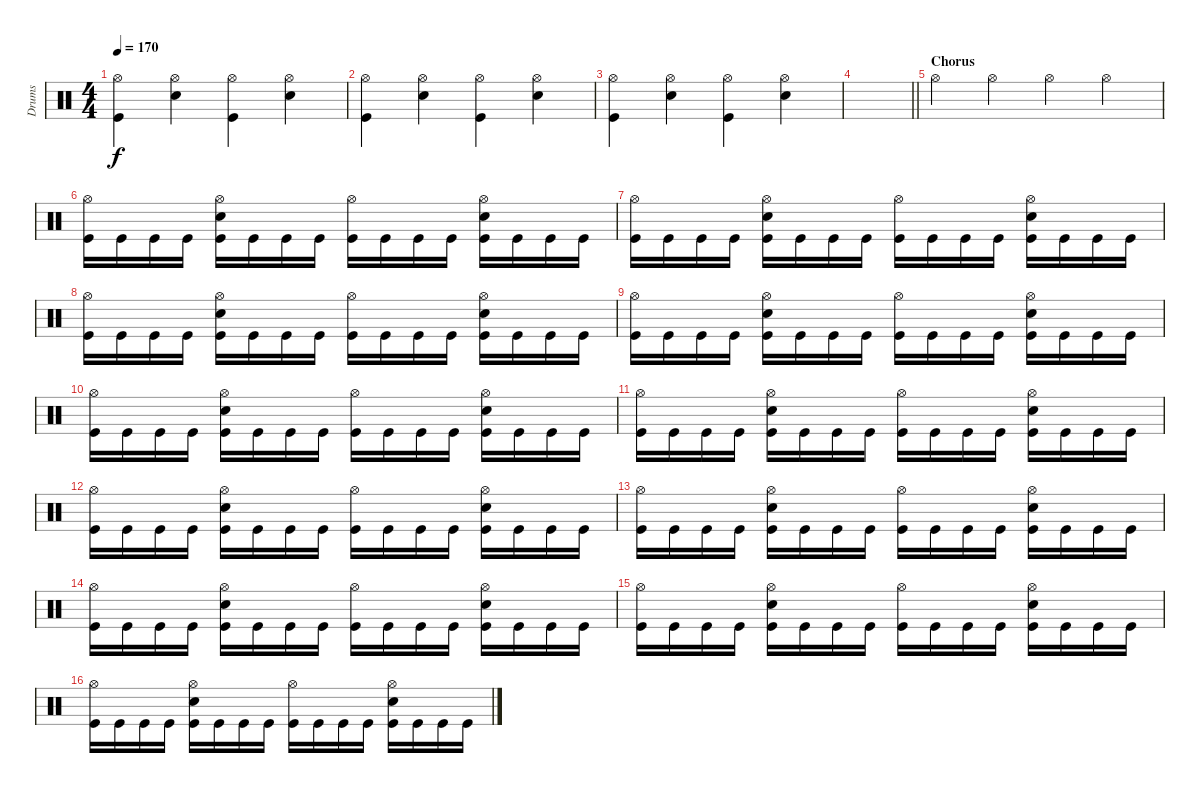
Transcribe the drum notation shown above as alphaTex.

\track ("Drums" "Drums") {instrument percussion}
\staff {score}
\articulation defaults
\ts (4 4)
\tempo 170
\clef neutral
\ks c
("Hi-Hat (open)" "Kick (hit)").4{dy f} ("Hi-Hat (open)" "Snare (hit) 2").4 ("Hi-Hat (open)" "Kick (hit)").4 ("Hi-Hat (open)" "Snare (hit) 2").4 |
("Hi-Hat (open)" "Kick (hit)").4 ("Hi-Hat (open)" "Snare (hit) 2").4 ("Hi-Hat (open)" "Kick (hit)").4 ("Hi-Hat (open)" "Snare (hit) 2").4 |
("Hi-Hat (open)" "Kick (hit)").4 ("Hi-Hat (open)" "Snare (hit) 2").4 ("Hi-Hat (open)" "Kick (hit)").4 ("Hi-Hat (open)" "Snare (hit) 2").4 |
\barLineRight lightlight
|
\section ("" "Chorus")
"Hi-Hat (open)".4 "Hi-Hat (open)".4 "Hi-Hat (open)".4 "Hi-Hat (open)".4 |
("Hi-Hat (open)" "Kick (hit)").16 "Kick (hit)".16 "Kick (hit)".16 "Kick (hit)".16 ("Hi-Hat (open)" "Snare (hit) 2" "Kick (hit)").16 "Kick (hit)".16 "Kick (hit)".16 "Kick (hit)".16 ("Hi-Hat (open)" "Kick (hit)").16 "Kick (hit)".16 "Kick (hit)".16 "Kick (hit)".16 ("Hi-Hat (open)" "Snare (hit) 2" "Kick (hit)").16 "Kick (hit)".16 "Kick (hit)".16 "Kick (hit)".16 |
("Hi-Hat (open)" "Kick (hit)").16 "Kick (hit)".16 "Kick (hit)".16 "Kick (hit)".16 ("Hi-Hat (open)" "Snare (hit) 2" "Kick (hit)").16 "Kick (hit)".16 "Kick (hit)".16 "Kick (hit)".16 ("Hi-Hat (open)" "Kick (hit)").16 "Kick (hit)".16 "Kick (hit)".16 "Kick (hit)".16 ("Hi-Hat (open)" "Snare (hit) 2" "Kick (hit)").16 "Kick (hit)".16 "Kick (hit)".16 "Kick (hit)".16 |
("Hi-Hat (open)" "Kick (hit)").16 "Kick (hit)".16 "Kick (hit)".16 "Kick (hit)".16 ("Hi-Hat (open)" "Snare (hit) 2" "Kick (hit)").16 "Kick (hit)".16 "Kick (hit)".16 "Kick (hit)".16 ("Hi-Hat (open)" "Kick (hit)").16 "Kick (hit)".16 "Kick (hit)".16 "Kick (hit)".16 ("Hi-Hat (open)" "Snare (hit) 2" "Kick (hit)").16 "Kick (hit)".16 "Kick (hit)".16 "Kick (hit)".16 |
("Hi-Hat (open)" "Kick (hit)").16 "Kick (hit)".16 "Kick (hit)".16 "Kick (hit)".16 ("Hi-Hat (open)" "Snare (hit) 2" "Kick (hit)").16 "Kick (hit)".16 "Kick (hit)".16 "Kick (hit)".16 ("Hi-Hat (open)" "Kick (hit)").16 "Kick (hit)".16 "Kick (hit)".16 "Kick (hit)".16 ("Hi-Hat (open)" "Snare (hit) 2" "Kick (hit)").16 "Kick (hit)".16 "Kick (hit)".16 "Kick (hit)".16 |
("Hi-Hat (open)" "Kick (hit)").16 "Kick (hit)".16 "Kick (hit)".16 "Kick (hit)".16 ("Hi-Hat (open)" "Snare (hit) 2" "Kick (hit)").16 "Kick (hit)".16 "Kick (hit)".16 "Kick (hit)".16 ("Hi-Hat (open)" "Kick (hit)").16 "Kick (hit)".16 "Kick (hit)".16 "Kick (hit)".16 ("Hi-Hat (open)" "Snare (hit) 2" "Kick (hit)").16 "Kick (hit)".16 "Kick (hit)".16 "Kick (hit)".16 |
("Hi-Hat (open)" "Kick (hit)").16 "Kick (hit)".16 "Kick (hit)".16 "Kick (hit)".16 ("Hi-Hat (open)" "Snare (hit) 2" "Kick (hit)").16 "Kick (hit)".16 "Kick (hit)".16 "Kick (hit)".16 ("Hi-Hat (open)" "Kick (hit)").16 "Kick (hit)".16 "Kick (hit)".16 "Kick (hit)".16 ("Hi-Hat (open)" "Snare (hit) 2" "Kick (hit)").16 "Kick (hit)".16 "Kick (hit)".16 "Kick (hit)".16 |
("Hi-Hat (open)" "Kick (hit)").16 "Kick (hit)".16 "Kick (hit)".16 "Kick (hit)".16 ("Hi-Hat (open)" "Snare (hit) 2" "Kick (hit)").16 "Kick (hit)".16 "Kick (hit)".16 "Kick (hit)".16 ("Hi-Hat (open)" "Kick (hit)").16 "Kick (hit)".16 "Kick (hit)".16 "Kick (hit)".16 ("Hi-Hat (open)" "Snare (hit) 2" "Kick (hit)").16 "Kick (hit)".16 "Kick (hit)".16 "Kick (hit)".16 |
("Hi-Hat (open)" "Kick (hit)").16 "Kick (hit)".16 "Kick (hit)".16 "Kick (hit)".16 ("Hi-Hat (open)" "Snare (hit) 2" "Kick (hit)").16 "Kick (hit)".16 "Kick (hit)".16 "Kick (hit)".16 ("Hi-Hat (open)" "Kick (hit)").16 "Kick (hit)".16 "Kick (hit)".16 "Kick (hit)".16 ("Hi-Hat (open)" "Snare (hit) 2" "Kick (hit)").16 "Kick (hit)".16 "Kick (hit)".16 "Kick (hit)".16 |
("Hi-Hat (open)" "Kick (hit)").16 "Kick (hit)".16 "Kick (hit)".16 "Kick (hit)".16 ("Hi-Hat (open)" "Snare (hit) 2" "Kick (hit)").16 "Kick (hit)".16 "Kick (hit)".16 "Kick (hit)".16 ("Hi-Hat (open)" "Kick (hit)").16 "Kick (hit)".16 "Kick (hit)".16 "Kick (hit)".16 ("Hi-Hat (open)" "Snare (hit) 2" "Kick (hit)").16 "Kick (hit)".16 "Kick (hit)".16 "Kick (hit)".16 |
("Hi-Hat (open)" "Kick (hit)").16 "Kick (hit)".16 "Kick (hit)".16 "Kick (hit)".16 ("Hi-Hat (open)" "Snare (hit) 2" "Kick (hit)").16 "Kick (hit)".16 "Kick (hit)".16 "Kick (hit)".16 ("Hi-Hat (open)" "Kick (hit)").16 "Kick (hit)".16 "Kick (hit)".16 "Kick (hit)".16 ("Hi-Hat (open)" "Snare (hit) 2" "Kick (hit)").16 "Kick (hit)".16 "Kick (hit)".16 "Kick (hit)".16 |
("Hi-Hat (open)" "Kick (hit)").16 "Kick (hit)".16 "Kick (hit)".16 "Kick (hit)".16 ("Hi-Hat (open)" "Snare (hit) 2" "Kick (hit)").16 "Kick (hit)".16 "Kick (hit)".16 "Kick (hit)".16 ("Hi-Hat (open)" "Kick (hit)").16 "Kick (hit)".16 "Kick (hit)".16 "Kick (hit)".16 ("Hi-Hat (open)" "Snare (hit) 2" "Kick (hit)").16 "Kick (hit)".16 "Kick (hit)".16 "Kick (hit)".16
